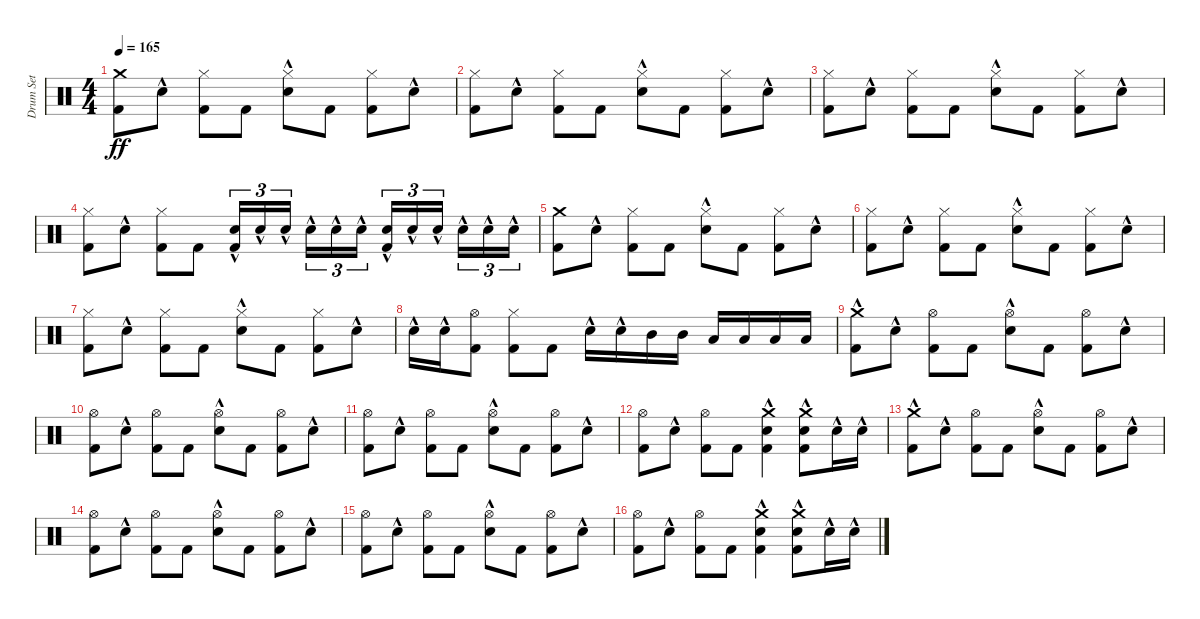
\track ("Drum Set" "Drum Set") {instrument percussion}
\staff {score}
\articulation defaults
\ts (4 4)
\tempo 165
\clef neutral
\ks c
("Crash medium (hit)" "Kick (hit) 2").8{dy ff volume 16} "Snare (hit) 2"{hac}.8 ("Hi-Hat (closed)" "Kick (hit) 2").8 "Kick (hit) 2".8 ("Hi-Hat (closed)" "Snare (hit) 2"{hac}).8 "Kick (hit) 2".8 ("Hi-Hat (closed)" "Kick (hit) 2").8 "Snare (hit) 2"{hac}.8 |
("Hi-Hat (closed)" "Kick (hit) 2").8 "Snare (hit) 2"{hac}.8 ("Hi-Hat (closed)" "Kick (hit) 2").8 "Kick (hit) 2".8 ("Hi-Hat (closed)" "Snare (hit) 2"{hac}).8 "Kick (hit) 2".8 ("Hi-Hat (closed)" "Kick (hit) 2").8 "Snare (hit) 2"{hac}.8 |
("Hi-Hat (closed)" "Kick (hit) 2").8 "Snare (hit) 2"{hac}.8 ("Hi-Hat (closed)" "Kick (hit) 2").8 "Kick (hit) 2".8 ("Hi-Hat (closed)" "Snare (hit) 2"{hac}).8 "Kick (hit) 2".8 ("Hi-Hat (closed)" "Kick (hit) 2").8 "Snare (hit) 2"{hac}.8 |
("Hi-Hat (closed)" "Kick (hit) 2").8 "Snare (hit) 2"{hac}.8 ("Hi-Hat (closed)" "Kick (hit) 2").8 "Kick (hit) 2".8 ("Snare (hit) 2"{hac} "Kick (hit) 2").16{tu (3 2)} "Snare (hit) 2"{hac}.16{tu (3 2)} "Snare (hit) 2"{hac}.16{tu (3 2) beam splitsecondary} "Snare (hit) 2"{hac}.16{tu (3 2)} "Snare (hit) 2"{hac}.16{tu (3 2)} "Snare (hit) 2"{hac}.16{tu (3 2)} ("Snare (hit) 2"{hac} "Kick (hit) 2").16{tu (3 2)} "Snare (hit) 2"{hac}.16{tu (3 2)} "Snare (hit) 2"{hac}.16{tu (3 2) beam splitsecondary} "Snare (hit) 2"{hac}.16{tu (3 2)} "Snare (hit) 2"{hac}.16{tu (3 2)} "Snare (hit) 2"{hac}.16{tu (3 2)} |
("Crash medium (hit)" "Kick (hit) 2").8 "Snare (hit) 2"{hac}.8 ("Hi-Hat (closed)" "Kick (hit) 2").8 "Kick (hit) 2".8 ("Hi-Hat (closed)" "Snare (hit) 2"{hac}).8 "Kick (hit) 2".8 ("Hi-Hat (closed)" "Kick (hit) 2").8 "Snare (hit) 2"{hac}.8 |
("Hi-Hat (closed)" "Kick (hit) 2").8 "Snare (hit) 2"{hac}.8 ("Hi-Hat (closed)" "Kick (hit) 2").8 "Kick (hit) 2".8 ("Hi-Hat (closed)" "Snare (hit) 2"{hac}).8 "Kick (hit) 2".8 ("Hi-Hat (closed)" "Kick (hit) 2").8 "Snare (hit) 2"{hac}.8 |
("Hi-Hat (closed)" "Kick (hit) 2").8 "Snare (hit) 2"{hac}.8 ("Hi-Hat (closed)" "Kick (hit) 2").8 "Kick (hit) 2".8 ("Hi-Hat (closed)" "Snare (hit) 2"{hac}).8 "Kick (hit) 2".8 ("Hi-Hat (closed)" "Kick (hit) 2").8 "Snare (hit) 2"{hac}.8 |
"Snare (hit) 2"{hac}.16 "Snare (hit) 2"{hac}.16 ("Hi-Hat (open)" "Kick (hit) 2").8 ("Hi-Hat (closed)" "Kick (hit) 2").8 "Kick (hit) 2".8 "Snare (hit) 2"{hac}.16 "Snare (hit) 2"{hac}.16 "Mid Tom (hit)".16 "Mid Tom (hit)".16 "Low Tom (hit)".16 "Low Tom (hit)".16 "Low Floor Tom (hit)".16 "Low Floor Tom (hit)".16 |
("Crash medium (hit)"{hac} "Kick (hit) 2").8 "Snare (hit) 2"{hac}.8 ("Hi-Hat (open)" "Kick (hit) 2").8 "Kick (hit) 2".8 ("Hi-Hat (open)" "Snare (hit) 2"{hac}).8 "Kick (hit) 2".8 ("Hi-Hat (open)" "Kick (hit) 2").8 "Snare (hit) 2"{hac}.8 |
("Hi-Hat (open)" "Kick (hit) 2").8 "Snare (hit) 2"{hac}.8 ("Hi-Hat (open)" "Kick (hit) 2").8 "Kick (hit) 2".8 ("Hi-Hat (open)" "Snare (hit) 2"{hac}).8 "Kick (hit) 2".8 ("Hi-Hat (open)" "Kick (hit) 2").8 "Snare (hit) 2"{hac}.8 |
("Hi-Hat (open)" "Kick (hit) 2").8 "Snare (hit) 2"{hac}.8 ("Hi-Hat (open)" "Kick (hit) 2").8 "Kick (hit) 2".8 ("Hi-Hat (open)" "Snare (hit) 2"{hac}).8 "Kick (hit) 2".8 ("Hi-Hat (open)" "Kick (hit) 2").8 "Snare (hit) 2"{hac}.8 |
("Hi-Hat (open)" "Kick (hit) 2").8 "Snare (hit) 2"{hac}.8 ("Hi-Hat (open)" "Kick (hit) 2").8 "Kick (hit) 2".8 ("Crash medium (hit)" "Snare (hit) 2"{hac} "Kick (hit) 2").4 ("Crash medium (hit)" "Snare (hit) 2"{hac} "Kick (hit) 2").8 "Snare (hit) 2"{hac}.16 "Snare (hit) 2"{hac}.16 |
("Crash medium (hit)"{hac} "Kick (hit) 2").8 "Snare (hit) 2"{hac}.8 ("Hi-Hat (open)" "Kick (hit) 2").8 "Kick (hit) 2".8 ("Hi-Hat (open)" "Snare (hit) 2"{hac}).8 "Kick (hit) 2".8 ("Hi-Hat (open)" "Kick (hit) 2").8 "Snare (hit) 2"{hac}.8 |
("Hi-Hat (open)" "Kick (hit) 2").8 "Snare (hit) 2"{hac}.8 ("Hi-Hat (open)" "Kick (hit) 2").8 "Kick (hit) 2".8 ("Hi-Hat (open)" "Snare (hit) 2"{hac}).8 "Kick (hit) 2".8 ("Hi-Hat (open)" "Kick (hit) 2").8 "Snare (hit) 2"{hac}.8 |
("Hi-Hat (open)" "Kick (hit) 2").8 "Snare (hit) 2"{hac}.8 ("Hi-Hat (open)" "Kick (hit) 2").8 "Kick (hit) 2".8 ("Hi-Hat (open)" "Snare (hit) 2"{hac}).8 "Kick (hit) 2".8 ("Hi-Hat (open)" "Kick (hit) 2").8 "Snare (hit) 2"{hac}.8 |
("Hi-Hat (open)" "Kick (hit) 2").8 "Snare (hit) 2"{hac}.8 ("Hi-Hat (open)" "Kick (hit) 2").8 "Kick (hit) 2".8 ("Crash medium (hit)" "Snare (hit) 2"{hac} "Kick (hit) 2").4 ("Crash medium (hit)" "Snare (hit) 2"{hac} "Kick (hit) 2").8 "Snare (hit) 2"{hac}.16 "Snare (hit) 2"{hac}.16
